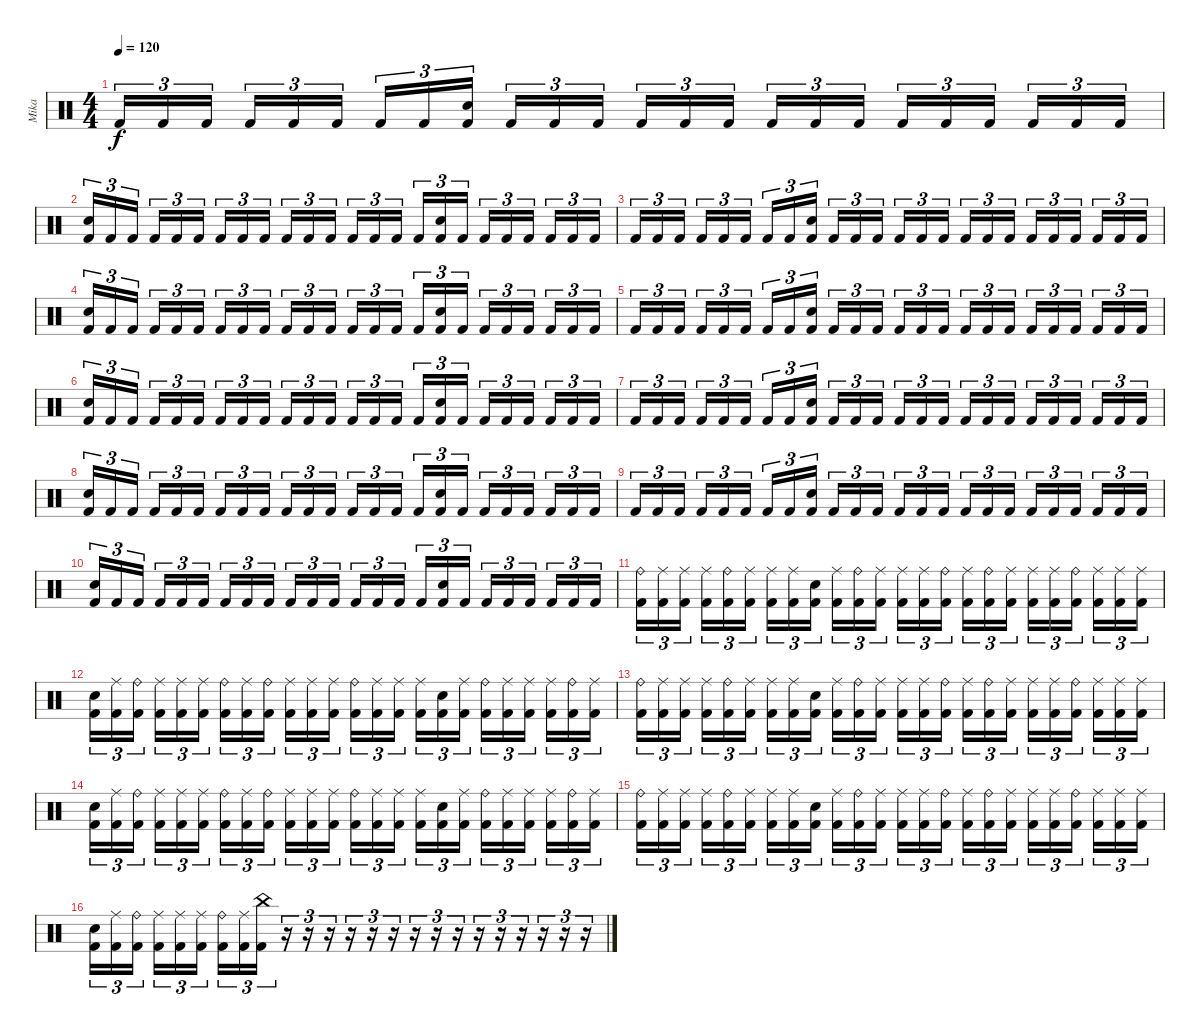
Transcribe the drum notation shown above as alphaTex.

\track ("Mika" "Mika") {instrument percussion}
\staff {score}
\articulation defaults
\ts (4 4)
\tempo 120
\clef neutral
\ks c "Kick (hit) 2".16{tu (3 2) dy f} "Kick (hit) 2".16{tu (3 2)} "Kick (hit) 2".16{tu (3 2) beam splitsecondary} "Kick (hit) 2".16{tu (3 2)} "Kick (hit) 2".16{tu (3 2)} "Kick (hit) 2".16{tu (3 2)} "Kick (hit) 2".16{tu (3 2)} "Kick (hit) 2".16{tu (3 2)}
("Electric Snare (hit)" "Kick (hit) 2").16{tu (3 2) beam splitsecondary} "Kick (hit) 2".16{tu (3 2)} "Kick (hit) 2".16{tu (3 2)} "Kick (hit) 2".16{tu (3 2)} "Kick (hit) 2".16{tu (3 2)} "Kick (hit) 2".16{tu (3 2)} "Kick (hit) 2".16{tu (3 2) beam splitsecondary} "Kick (hit) 2".16{tu (3 2)} "Kick (hit) 2".16{tu (3 2)} "Kick (hit) 2".16{tu (3 2)} "Kick (hit) 2".16{tu (3 2)} "Kick (hit) 2".16{tu (3 2)} "Kick (hit) 2".16{tu (3 2) beam splitsecondary} "Kick (hit) 2".16{tu (3 2)} "Kick (hit) 2".16{tu (3 2)} "Kick (hit) 2".16{tu (3 2)} |
("Electric Snare (hit)" "Kick (hit) 2").16{tu (3 2)} "Kick (hit) 2".16{tu (3 2)} "Kick (hit) 2".16{tu (3 2) beam splitsecondary} "Kick (hit) 2".16{tu (3 2)} "Kick (hit) 2".16{tu (3 2)} "Kick (hit) 2".16{tu (3 2)} "Kick (hit) 2".16{tu (3 2)} "Kick (hit) 2".16{tu (3 2)} "Kick (hit) 2".16{tu (3 2) beam splitsecondary} "Kick (hit) 2".16{tu (3 2)} "Kick (hit) 2".16{tu (3 2)} "Kick (hit) 2".16{tu (3 2)} "Kick (hit) 2".16{tu (3 2)} "Kick (hit) 2".16{tu (3 2)} "Kick (hit) 2".16{tu (3 2) beam splitsecondary} "Kick (hit) 2".16{tu (3 2)} ("Electric Snare (hit)" "Kick (hit) 2").16{tu (3 2)} "Kick (hit) 2".16{tu (3 2)} "Kick (hit) 2".16{tu (3 2)} "Kick (hit) 2".16{tu (3 2)} "Kick (hit) 2".16{tu (3 2) beam splitsecondary} "Kick (hit) 2".16{tu (3 2)} "Kick (hit) 2".16{tu (3 2)} "Kick (hit) 2".16{tu (3 2)} |
"Kick (hit) 2".16{tu (3 2)} "Kick (hit) 2".16{tu (3 2)} "Kick (hit) 2".16{tu (3 2) beam splitsecondary} "Kick (hit) 2".16{tu (3 2)} "Kick (hit) 2".16{tu (3 2)} "Kick (hit) 2".16{tu (3 2)} "Kick (hit) 2".16{tu (3 2)} "Kick (hit) 2".16{tu (3 2)} ("Electric Snare (hit)" "Kick (hit) 2").16{tu (3 2) beam splitsecondary} "Kick (hit) 2".16{tu (3 2)} "Kick (hit) 2".16{tu (3 2)} "Kick (hit) 2".16{tu (3 2)} "Kick (hit) 2".16{tu (3 2)} "Kick (hit) 2".16{tu (3 2)} "Kick (hit) 2".16{tu (3 2) beam splitsecondary} "Kick (hit) 2".16{tu (3 2)} "Kick (hit) 2".16{tu (3 2)} "Kick (hit) 2".16{tu (3 2)} "Kick (hit) 2".16{tu (3 2)} "Kick (hit) 2".16{tu (3 2)} "Kick (hit) 2".16{tu (3 2) beam splitsecondary} "Kick (hit) 2".16{tu (3 2)} "Kick (hit) 2".16{tu (3 2)} "Kick (hit) 2".16{tu (3 2)} |
("Electric Snare (hit)" "Kick (hit) 2").16{tu (3 2)} "Kick (hit) 2".16{tu (3 2)} "Kick (hit) 2".16{tu (3 2) beam splitsecondary} "Kick (hit) 2".16{tu (3 2)} "Kick (hit) 2".16{tu (3 2)} "Kick (hit) 2".16{tu (3 2)} "Kick (hit) 2".16{tu (3 2)} "Kick (hit) 2".16{tu (3 2)} "Kick (hit) 2".16{tu (3 2) beam splitsecondary} "Kick (hit) 2".16{tu (3 2)} "Kick (hit) 2".16{tu (3 2)} "Kick (hit) 2".16{tu (3 2)} "Kick (hit) 2".16{tu (3 2)} "Kick (hit) 2".16{tu (3 2)} "Kick (hit) 2".16{tu (3 2) beam splitsecondary} "Kick (hit) 2".16{tu (3 2)} ("Electric Snare (hit)" "Kick (hit) 2").16{tu (3 2)} "Kick (hit) 2".16{tu (3 2)} "Kick (hit) 2".16{tu (3 2)} "Kick (hit) 2".16{tu (3 2)} "Kick (hit) 2".16{tu (3 2) beam splitsecondary} "Kick (hit) 2".16{tu (3 2)} "Kick (hit) 2".16{tu (3 2)} "Kick (hit) 2".16{tu (3 2)} |
"Kick (hit) 2".16{tu (3 2)} "Kick (hit) 2".16{tu (3 2)} "Kick (hit) 2".16{tu (3 2) beam splitsecondary} "Kick (hit) 2".16{tu (3 2)} "Kick (hit) 2".16{tu (3 2)} "Kick (hit) 2".16{tu (3 2)} "Kick (hit) 2".16{tu (3 2)} "Kick (hit) 2".16{tu (3 2)} ("Electric Snare (hit)" "Kick (hit) 2").16{tu (3 2) beam splitsecondary} "Kick (hit) 2".16{tu (3 2)} "Kick (hit) 2".16{tu (3 2)} "Kick (hit) 2".16{tu (3 2)} "Kick (hit) 2".16{tu (3 2)} "Kick (hit) 2".16{tu (3 2)} "Kick (hit) 2".16{tu (3 2) beam splitsecondary} "Kick (hit) 2".16{tu (3 2)} "Kick (hit) 2".16{tu (3 2)} "Kick (hit) 2".16{tu (3 2)} "Kick (hit) 2".16{tu (3 2)} "Kick (hit) 2".16{tu (3 2)} "Kick (hit) 2".16{tu (3 2) beam splitsecondary} "Kick (hit) 2".16{tu (3 2)} "Kick (hit) 2".16{tu (3 2)} "Kick (hit) 2".16{tu (3 2)} |
("Electric Snare (hit)" "Kick (hit) 2").16{tu (3 2)} "Kick (hit) 2".16{tu (3 2)} "Kick (hit) 2".16{tu (3 2) beam splitsecondary} "Kick (hit) 2".16{tu (3 2)} "Kick (hit) 2".16{tu (3 2)} "Kick (hit) 2".16{tu (3 2)} "Kick (hit) 2".16{tu (3 2)} "Kick (hit) 2".16{tu (3 2)} "Kick (hit) 2".16{tu (3 2) beam splitsecondary} "Kick (hit) 2".16{tu (3 2)} "Kick (hit) 2".16{tu (3 2)} "Kick (hit) 2".16{tu (3 2)} "Kick (hit) 2".16{tu (3 2)} "Kick (hit) 2".16{tu (3 2)} "Kick (hit) 2".16{tu (3 2) beam splitsecondary} "Kick (hit) 2".16{tu (3 2)} ("Electric Snare (hit)" "Kick (hit) 2").16{tu (3 2)} "Kick (hit) 2".16{tu (3 2)} "Kick (hit) 2".16{tu (3 2)} "Kick (hit) 2".16{tu (3 2)} "Kick (hit) 2".16{tu (3 2) beam splitsecondary} "Kick (hit) 2".16{tu (3 2)} "Kick (hit) 2".16{tu (3 2)} "Kick (hit) 2".16{tu (3 2)} |
"Kick (hit) 2".16{tu (3 2)} "Kick (hit) 2".16{tu (3 2)} "Kick (hit) 2".16{tu (3 2) beam splitsecondary} "Kick (hit) 2".16{tu (3 2)} "Kick (hit) 2".16{tu (3 2)} "Kick (hit) 2".16{tu (3 2)} "Kick (hit) 2".16{tu (3 2)} "Kick (hit) 2".16{tu (3 2)} ("Electric Snare (hit)" "Kick (hit) 2").16{tu (3 2) beam splitsecondary} "Kick (hit) 2".16{tu (3 2)} "Kick (hit) 2".16{tu (3 2)} "Kick (hit) 2".16{tu (3 2)} "Kick (hit) 2".16{tu (3 2)} "Kick (hit) 2".16{tu (3 2)} "Kick (hit) 2".16{tu (3 2) beam splitsecondary} "Kick (hit) 2".16{tu (3 2)} "Kick (hit) 2".16{tu (3 2)} "Kick (hit) 2".16{tu (3 2)} "Kick (hit) 2".16{tu (3 2)} "Kick (hit) 2".16{tu (3 2)} "Kick (hit) 2".16{tu (3 2) beam splitsecondary} "Kick (hit) 2".16{tu (3 2)} "Kick (hit) 2".16{tu (3 2)} "Kick (hit) 2".16{tu (3 2)} |
("Electric Snare (hit)" "Kick (hit) 2").16{tu (3 2)} "Kick (hit) 2".16{tu (3 2)} "Kick (hit) 2".16{tu (3 2) beam splitsecondary} "Kick (hit) 2".16{tu (3 2)} "Kick (hit) 2".16{tu (3 2)} "Kick (hit) 2".16{tu (3 2)} "Kick (hit) 2".16{tu (3 2)} "Kick (hit) 2".16{tu (3 2)} "Kick (hit) 2".16{tu (3 2) beam splitsecondary} "Kick (hit) 2".16{tu (3 2)} "Kick (hit) 2".16{tu (3 2)} "Kick (hit) 2".16{tu (3 2)} "Kick (hit) 2".16{tu (3 2)} "Kick (hit) 2".16{tu (3 2)} "Kick (hit) 2".16{tu (3 2) beam splitsecondary} "Kick (hit) 2".16{tu (3 2)} ("Electric Snare (hit)" "Kick (hit) 2").16{tu (3 2)} "Kick (hit) 2".16{tu (3 2)} "Kick (hit) 2".16{tu (3 2)} "Kick (hit) 2".16{tu (3 2)} "Kick (hit) 2".16{tu (3 2) beam splitsecondary} "Kick (hit) 2".16{tu (3 2)} "Kick (hit) 2".16{tu (3 2)} "Kick (hit) 2".16{tu (3 2)} |
"Kick (hit) 2".16{tu (3 2)} "Kick (hit) 2".16{tu (3 2)} "Kick (hit) 2".16{tu (3 2) beam splitsecondary} "Kick (hit) 2".16{tu (3 2)} "Kick (hit) 2".16{tu (3 2)} "Kick (hit) 2".16{tu (3 2)} "Kick (hit) 2".16{tu (3 2)} "Kick (hit) 2".16{tu (3 2)} ("Electric Snare (hit)" "Kick (hit) 2").16{tu (3 2) beam splitsecondary} "Kick (hit) 2".16{tu (3 2)} "Kick (hit) 2".16{tu (3 2)} "Kick (hit) 2".16{tu (3 2)} "Kick (hit) 2".16{tu (3 2)} "Kick (hit) 2".16{tu (3 2)} "Kick (hit) 2".16{tu (3 2) beam splitsecondary} "Kick (hit) 2".16{tu (3 2)} "Kick (hit) 2".16{tu (3 2)} "Kick (hit) 2".16{tu (3 2)} "Kick (hit) 2".16{tu (3 2)} "Kick (hit) 2".16{tu (3 2)} "Kick (hit) 2".16{tu (3 2) beam splitsecondary} "Kick (hit) 2".16{tu (3 2)} "Kick (hit) 2".16{tu (3 2)} "Kick (hit) 2".16{tu (3 2)} |
("Electric Snare (hit)" "Kick (hit) 2").16{tu (3 2)} "Kick (hit) 2".16{tu (3 2)} "Kick (hit) 2".16{tu (3 2) beam splitsecondary} "Kick (hit) 2".16{tu (3 2)} "Kick (hit) 2".16{tu (3 2)} "Kick (hit) 2".16{tu (3 2)} "Kick (hit) 2".16{tu (3 2)} "Kick (hit) 2".16{tu (3 2)} "Kick (hit) 2".16{tu (3 2) beam splitsecondary} "Kick (hit) 2".16{tu (3 2)} "Kick (hit) 2".16{tu (3 2)} "Kick (hit) 2".16{tu (3 2)} "Kick (hit) 2".16{tu (3 2)} "Kick (hit) 2".16{tu (3 2)} "Kick (hit) 2".16{tu (3 2) beam splitsecondary} "Kick (hit) 2".16{tu (3 2)} ("Electric Snare (hit)" "Kick (hit) 2").16{tu (3 2)} "Kick (hit) 2".16{tu (3 2)} "Kick (hit) 2".16{tu (3 2)} "Kick (hit) 2".16{tu (3 2)} "Kick (hit) 2".16{tu (3 2) beam splitsecondary} "Kick (hit) 2".16{tu (3 2)} "Kick (hit) 2".16{tu (3 2)} "Kick (hit) 2".16{tu (3 2)} |
("Ride (bell)" "Kick (hit) 2").16{tu (3 2)} ("Ride (middle)" "Kick (hit) 2").16{tu (3 2)} ("Ride (middle)" "Kick (hit) 2").16{tu (3 2) beam splitsecondary} ("Ride (middle)" "Kick (hit) 2").16{tu (3 2)} ("Ride (bell)" "Kick (hit) 2").16{tu (3 2)} ("Ride (middle)" "Kick (hit) 2").16{tu (3 2)} ("Ride (middle)" "Kick (hit) 2").16{tu (3 2)} ("Ride (middle)" "Kick (hit) 2").16{tu (3 2)} ("Electric Snare (hit)" "Kick (hit) 2").16{tu (3 2) beam splitsecondary} ("Ride (middle)" "Kick (hit) 2").16{tu (3 2)} ("Ride (bell)" "Kick (hit) 2").16{tu (3 2)} ("Ride (middle)" "Kick (hit) 2").16{tu (3 2)} ("Ride (middle)" "Kick (hit) 2").16{tu (3 2)} ("Ride (middle)" "Kick (hit) 2").16{tu (3 2)} ("Ride (bell)" "Kick (hit) 2").16{tu (3 2) beam splitsecondary} ("Ride (middle)" "Kick (hit) 2").16{tu (3 2)} ("Ride (bell)" "Kick (hit) 2").16{tu (3 2)} ("Ride (middle)" "Kick (hit) 2").16{tu (3 2)} ("Ride (middle)" "Kick (hit) 2").16{tu (3 2)} ("Ride (middle)" "Kick (hit) 2").16{tu (3 2)} ("Ride (bell)" "Kick (hit) 2").16{tu (3 2) beam splitsecondary} ("Ride (middle)" "Kick (hit) 2").16{tu (3 2)} ("Ride (middle)" "Kick (hit) 2").16{tu (3 2)} ("Ride (middle)" "Kick (hit) 2").16{tu (3 2)} |
("Electric Snare (hit)" "Kick (hit) 2").16{tu (3 2)} ("Ride (middle)" "Kick (hit) 2").16{tu (3 2)} ("Ride (bell)" "Kick (hit) 2").16{tu (3 2) beam splitsecondary} ("Ride (middle)" "Kick (hit) 2").16{tu (3 2)} ("Ride (middle)" "Kick (hit) 2").16{tu (3 2)} ("Ride (middle)" "Kick (hit) 2").16{tu (3 2)} ("Ride (bell)" "Kick (hit) 2").16{tu (3 2)} ("Ride (middle)" "Kick (hit) 2").16{tu (3 2)} ("Ride (bell)" "Kick (hit) 2").16{tu (3 2) beam splitsecondary} ("Ride (middle)" "Kick (hit) 2").16{tu (3 2)} ("Ride (middle)" "Kick (hit) 2").16{tu (3 2)} ("Ride (middle)" "Kick (hit) 2").16{tu (3 2)} ("Ride (bell)" "Kick (hit) 2").16{tu (3 2)} ("Ride (middle)" "Kick (hit) 2").16{tu (3 2)} ("Ride (middle)" "Kick (hit) 2").16{tu (3 2) beam splitsecondary} ("Ride (middle)" "Kick (hit) 2").16{tu (3 2)} ("Electric Snare (hit)" "Kick (hit) 2").16{tu (3 2)} ("Ride (middle)" "Kick (hit) 2").16{tu (3 2)} ("Ride (bell)" "Kick (hit) 2").16{tu (3 2)} ("Ride (middle)" "Kick (hit) 2").16{tu (3 2)} ("Ride (middle)" "Kick (hit) 2").16{tu (3 2) beam splitsecondary} ("Ride (middle)" "Kick (hit) 2").16{tu (3 2)} ("Ride (bell)" "Kick (hit) 2").16{tu (3 2)} ("Ride (middle)" "Kick (hit) 2").16{tu (3 2)} |
("Ride (bell)" "Kick (hit) 2").16{tu (3 2)} ("Ride (middle)" "Kick (hit) 2").16{tu (3 2)} ("Ride (middle)" "Kick (hit) 2").16{tu (3 2) beam splitsecondary} ("Ride (middle)" "Kick (hit) 2").16{tu (3 2)} ("Ride (bell)" "Kick (hit) 2").16{tu (3 2)} ("Ride (middle)" "Kick (hit) 2").16{tu (3 2)} ("Ride (middle)" "Kick (hit) 2").16{tu (3 2)} ("Ride (middle)" "Kick (hit) 2").16{tu (3 2)} ("Electric Snare (hit)" "Kick (hit) 2").16{tu (3 2) beam splitsecondary} ("Ride (middle)" "Kick (hit) 2").16{tu (3 2)} ("Ride (bell)" "Kick (hit) 2").16{tu (3 2)} ("Ride (middle)" "Kick (hit) 2").16{tu (3 2)} ("Ride (middle)" "Kick (hit) 2").16{tu (3 2)} ("Ride (middle)" "Kick (hit) 2").16{tu (3 2)} ("Ride (bell)" "Kick (hit) 2").16{tu (3 2) beam splitsecondary} ("Ride (middle)" "Kick (hit) 2").16{tu (3 2)} ("Ride (bell)" "Kick (hit) 2").16{tu (3 2)} ("Ride (middle)" "Kick (hit) 2").16{tu (3 2)} ("Ride (middle)" "Kick (hit) 2").16{tu (3 2)} ("Ride (middle)" "Kick (hit) 2").16{tu (3 2)} ("Ride (bell)" "Kick (hit) 2").16{tu (3 2) beam splitsecondary} ("Ride (middle)" "Kick (hit) 2").16{tu (3 2)} ("Ride (middle)" "Kick (hit) 2").16{tu (3 2)} ("Ride (middle)" "Kick (hit) 2").16{tu (3 2)} |
("Electric Snare (hit)" "Kick (hit) 2").16{tu (3 2)} ("Ride (middle)" "Kick (hit) 2").16{tu (3 2)} ("Ride (bell)" "Kick (hit) 2").16{tu (3 2) beam splitsecondary} ("Ride (middle)" "Kick (hit) 2").16{tu (3 2)} ("Ride (middle)" "Kick (hit) 2").16{tu (3 2)} ("Ride (middle)" "Kick (hit) 2").16{tu (3 2)} ("Ride (bell)" "Kick (hit) 2").16{tu (3 2)} ("Ride (middle)" "Kick (hit) 2").16{tu (3 2)} ("Ride (bell)" "Kick (hit) 2").16{tu (3 2) beam splitsecondary} ("Ride (middle)" "Kick (hit) 2").16{tu (3 2)} ("Ride (middle)" "Kick (hit) 2").16{tu (3 2)} ("Ride (middle)" "Kick (hit) 2").16{tu (3 2)} ("Ride (bell)" "Kick (hit) 2").16{tu (3 2)} ("Ride (middle)" "Kick (hit) 2").16{tu (3 2)} ("Ride (middle)" "Kick (hit) 2").16{tu (3 2) beam splitsecondary} ("Ride (middle)" "Kick (hit) 2").16{tu (3 2)} ("Electric Snare (hit)" "Kick (hit) 2").16{tu (3 2)} ("Ride (middle)" "Kick (hit) 2").16{tu (3 2)} ("Ride (bell)" "Kick (hit) 2").16{tu (3 2)} ("Ride (middle)" "Kick (hit) 2").16{tu (3 2)} ("Ride (middle)" "Kick (hit) 2").16{tu (3 2) beam splitsecondary} ("Ride (middle)" "Kick (hit) 2").16{tu (3 2)} ("Ride (bell)" "Kick (hit) 2").16{tu (3 2)} ("Ride (middle)" "Kick (hit) 2").16{tu (3 2)} |
("Ride (bell)" "Kick (hit) 2").16{tu (3 2)} ("Ride (middle)" "Kick (hit) 2").16{tu (3 2)} ("Ride (middle)" "Kick (hit) 2").16{tu (3 2) beam splitsecondary} ("Ride (middle)" "Kick (hit) 2").16{tu (3 2)} ("Ride (bell)" "Kick (hit) 2").16{tu (3 2)} ("Ride (middle)" "Kick (hit) 2").16{tu (3 2)} ("Ride (middle)" "Kick (hit) 2").16{tu (3 2)} ("Ride (middle)" "Kick (hit) 2").16{tu (3 2)} ("Electric Snare (hit)" "Kick (hit) 2").16{tu (3 2) beam splitsecondary} ("Ride (middle)" "Kick (hit) 2").16{tu (3 2)} ("Ride (bell)" "Kick (hit) 2").16{tu (3 2)} ("Ride (middle)" "Kick (hit) 2").16{tu (3 2)} ("Ride (middle)" "Kick (hit) 2").16{tu (3 2)} ("Ride (middle)" "Kick (hit) 2").16{tu (3 2)} ("Ride (bell)" "Kick (hit) 2").16{tu (3 2) beam splitsecondary} ("Ride (middle)" "Kick (hit) 2").16{tu (3 2)} ("Ride (bell)" "Kick (hit) 2").16{tu (3 2)} ("Ride (middle)" "Kick (hit) 2").16{tu (3 2)} ("Ride (middle)" "Kick (hit) 2").16{tu (3 2)} ("Ride (middle)" "Kick (hit) 2").16{tu (3 2)} ("Ride (bell)" "Kick (hit) 2").16{tu (3 2) beam splitsecondary} ("Ride (middle)" "Kick (hit) 2").16{tu (3 2)} ("Ride (middle)" "Kick (hit) 2").16{tu (3 2)} ("Ride (middle)" "Kick (hit) 2").16{tu (3 2)} |
("Electric Snare (hit)" "Kick (hit) 2").16{tu (3 2)} ("Ride (middle)" "Kick (hit) 2").16{tu (3 2)} ("Ride (bell)" "Kick (hit) 2").16{tu (3 2) beam splitsecondary} ("Ride (middle)" "Kick (hit) 2").16{tu (3 2)} ("Ride (middle)" "Kick (hit) 2").16{tu (3 2)} ("Ride (middle)" "Kick (hit) 2").16{tu (3 2)} ("Ride (bell)" "Kick (hit) 2").16{tu (3 2)} ("Ride (middle)" "Kick (hit) 2").16{tu (3 2)} ("China (hit)" "Kick (hit) 2").16{tu (3 2)} r.16{tu (3 2)} r.16{tu (3 2)} r.16{tu (3 2)} r.16{tu (3 2)} r.16{tu (3 2)} r.16{tu (3 2)} r.16{tu (3 2)} r.16{tu (3 2)} r.16{tu (3 2)} r.16{tu (3 2)} r.16{tu (3 2)} r.16{tu (3 2)} r.16{tu (3 2)} r.16{tu (3 2)} r.16{tu (3 2)}
